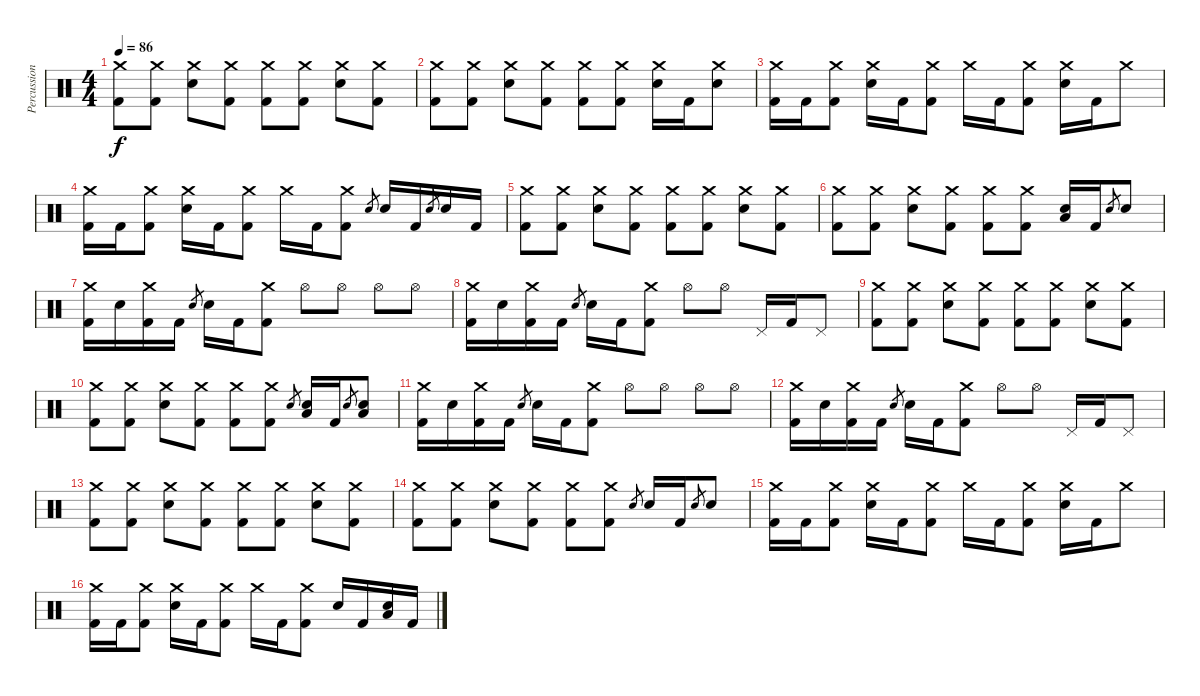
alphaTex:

\track ("Percussion" "Percussion") {instrument percussion}
\staff {score}
\articulation defaults
\ts (4 4)
\tempo 86
\clef neutral
\ks c
("Crash medium (hit)" "Kick (hit) 2").8{dy f} ("Crash medium (hit)" "Kick (hit) 2").8 ("Crash medium (hit)" "Electric Snare (hit)").8 ("Crash medium (hit)" "Kick (hit) 2").8 ("Crash medium (hit)" "Kick (hit) 2").8 ("Crash medium (hit)" "Kick (hit) 2").8 ("Crash medium (hit)" "Electric Snare (hit)").8 ("Crash medium (hit)" "Kick (hit) 2").8 |
("Crash medium (hit)" "Kick (hit) 2").8 ("Crash medium (hit)" "Kick (hit) 2").8 ("Crash medium (hit)" "Electric Snare (hit)").8 ("Crash medium (hit)" "Kick (hit) 2").8 ("Crash medium (hit)" "Kick (hit) 2").8 ("Crash medium (hit)" "Kick (hit) 2").8 ("Crash medium (hit)" "Electric Snare (hit)").16 "Kick (hit) 2".16 ("Crash medium (hit)" "Electric Snare (hit)").8 |
("Crash medium (hit)" "Kick (hit) 2").16 "Kick (hit) 2".16 ("Crash medium (hit)" "Kick (hit) 2").8 ("Crash medium (hit)" "Electric Snare (hit)").16 "Kick (hit) 2".16 ("Crash medium (hit)" "Kick (hit) 2").8 "Crash medium (hit)".16 "Kick (hit) 2".16 ("Crash medium (hit)" "Kick (hit) 2").8 ("Crash medium (hit)" "Electric Snare (hit)").16 "Kick (hit) 2".16 "Crash medium (hit)".8 |
("Crash medium (hit)" "Kick (hit) 2").16 "Kick (hit) 2".16 ("Crash medium (hit)" "Kick (hit) 2").8 ("Crash medium (hit)" "Electric Snare (hit)").16 "Kick (hit) 2".16 ("Crash medium (hit)" "Kick (hit) 2").8 "Crash medium (hit)".16 "Kick (hit) 2".16 ("Crash medium (hit)" "Kick (hit) 2").8 "Electric Snare (hit)".8{gr} "Electric Snare (hit)".16 "Kick (hit) 2".16 "Electric Snare (hit)".8{gr} "Electric Snare (hit)".16 "Kick (hit) 2".16 |
("Crash medium (hit)" "Kick (hit) 2").8 ("Crash medium (hit)" "Kick (hit) 2").8 ("Crash medium (hit)" "Electric Snare (hit)").8 ("Crash medium (hit)" "Kick (hit) 2").8 ("Crash medium (hit)" "Kick (hit) 2").8 ("Crash medium (hit)" "Kick (hit) 2").8 ("Crash medium (hit)" "Electric Snare (hit)").8 ("Crash medium (hit)" "Kick (hit) 2").8 |
("Crash medium (hit)" "Kick (hit) 2").8 ("Crash medium (hit)" "Kick (hit) 2").8 ("Crash medium (hit)" "Electric Snare (hit)").8 ("Crash medium (hit)" "Kick (hit) 2").8 ("Crash medium (hit)" "Kick (hit) 2").8 ("Crash medium (hit)" "Kick (hit) 2").8 ("Low Floor Tom (hit)" "Electric Snare (hit)").16 "Kick (hit) 2".16 "Electric Snare (hit)".8{gr} "Electric Snare (hit)".8 |
("Crash medium (hit)" "Kick (hit) 2").16 "Electric Snare (hit)".16 ("Crash medium (hit)" "Kick (hit) 2").16 "Kick (hit) 2".16 "Electric Snare (hit)".8{gr} "Electric Snare (hit)".16 "Kick (hit) 2".16 ("Crash medium (hit)" "Kick (hit) 2").8 "Hi-Hat (open)".8 "Hi-Hat (open)".8 "Hi-Hat (open)".8 "Hi-Hat (open)".8 |
("Crash medium (hit)" "Kick (hit) 2").16 "Electric Snare (hit)".16 ("Crash medium (hit)" "Kick (hit) 2").16 "Kick (hit) 2".16 "Electric Snare (hit)".8{gr} "Electric Snare (hit)".16 "Kick (hit) 2".16 ("Crash medium (hit)" "Kick (hit) 2").8 "Hi-Hat (open)".8 "Hi-Hat (open)".8 "Pedal Hi-Hat (hit)".16 "Kick (hit) 2".16 "Pedal Hi-Hat (hit)".8 |
("Crash medium (hit)" "Kick (hit) 2").8 ("Crash medium (hit)" "Kick (hit) 2").8 ("Crash medium (hit)" "Electric Snare (hit)").8 ("Crash medium (hit)" "Kick (hit) 2").8 ("Crash medium (hit)" "Kick (hit) 2").8 ("Crash medium (hit)" "Kick (hit) 2").8 ("Crash medium (hit)" "Electric Snare (hit)").8 ("Crash medium (hit)" "Kick (hit) 2").8 |
("Crash medium (hit)" "Kick (hit) 2").8 ("Crash medium (hit)" "Kick (hit) 2").8 ("Crash medium (hit)" "Electric Snare (hit)").8 ("Crash medium (hit)" "Kick (hit) 2").8 ("Crash medium (hit)" "Kick (hit) 2").8 ("Crash medium (hit)" "Kick (hit) 2").8 "Electric Snare (hit)".8{gr} ("Low Floor Tom (hit)" "Electric Snare (hit)").16 "Kick (hit) 2".16 "Electric Snare (hit)".8{gr} ("Low Floor Tom (hit)" "Electric Snare (hit)").8 |
("Crash medium (hit)" "Kick (hit) 2").16 "Electric Snare (hit)".16 ("Crash medium (hit)" "Kick (hit) 2").16 "Kick (hit) 2".16 "Electric Snare (hit)".8{gr} "Electric Snare (hit)".16 "Kick (hit) 2".16 ("Crash medium (hit)" "Kick (hit) 2").8 "Hi-Hat (open)".8 "Hi-Hat (open)".8 "Hi-Hat (open)".8 "Hi-Hat (open)".8 |
("Crash medium (hit)" "Kick (hit) 2").16 "Electric Snare (hit)".16 ("Crash medium (hit)" "Kick (hit) 2").16 "Kick (hit) 2".16 "Electric Snare (hit)".8{gr} "Electric Snare (hit)".16 "Kick (hit) 2".16 ("Crash medium (hit)" "Kick (hit) 2").8 "Hi-Hat (open)".8 "Hi-Hat (open)".8 "Pedal Hi-Hat (hit)".16 "Kick (hit) 2".16 "Pedal Hi-Hat (hit)".8 |
("Crash medium (hit)" "Kick (hit) 2").8 ("Crash medium (hit)" "Kick (hit) 2").8 ("Crash medium (hit)" "Electric Snare (hit)").8 ("Crash medium (hit)" "Kick (hit) 2").8 ("Crash medium (hit)" "Kick (hit) 2").8 ("Crash medium (hit)" "Kick (hit) 2").8 ("Crash medium (hit)" "Electric Snare (hit)").8 ("Crash medium (hit)" "Kick (hit) 2").8 |
("Crash medium (hit)" "Kick (hit) 2").8 ("Crash medium (hit)" "Kick (hit) 2").8 ("Crash medium (hit)" "Electric Snare (hit)").8 ("Crash medium (hit)" "Kick (hit) 2").8 ("Crash medium (hit)" "Kick (hit) 2").8 ("Crash medium (hit)" "Kick (hit) 2").8 "Electric Snare (hit)".8{gr} "Electric Snare (hit)".16 "Kick (hit) 2".16 "Electric Snare (hit)".8{gr} "Electric Snare (hit)".8 |
("Crash medium (hit)" "Kick (hit) 2").16 "Kick (hit) 2".16 ("Crash medium (hit)" "Kick (hit) 2").8 ("Crash medium (hit)" "Electric Snare (hit)").16 "Kick (hit) 2".16 ("Crash medium (hit)" "Kick (hit) 2").8 "Crash medium (hit)".16 "Kick (hit) 2".16 ("Crash medium (hit)" "Kick (hit) 2").8 ("Crash medium (hit)" "Electric Snare (hit)").16 "Kick (hit) 2".16 "Crash medium (hit)".8 |
("Crash medium (hit)" "Kick (hit) 2").16 "Kick (hit) 2".16 ("Crash medium (hit)" "Kick (hit) 2").8 ("Crash medium (hit)" "Electric Snare (hit)").16 "Kick (hit) 2".16 ("Crash medium (hit)" "Kick (hit) 2").8 "Crash medium (hit)".16 "Kick (hit) 2".16 ("Crash medium (hit)" "Kick (hit) 2").8 "Electric Snare (hit)".16 "Kick (hit) 2".16 ("Low Floor Tom (hit)" "Electric Snare (hit)").16 "Kick (hit) 2".16
